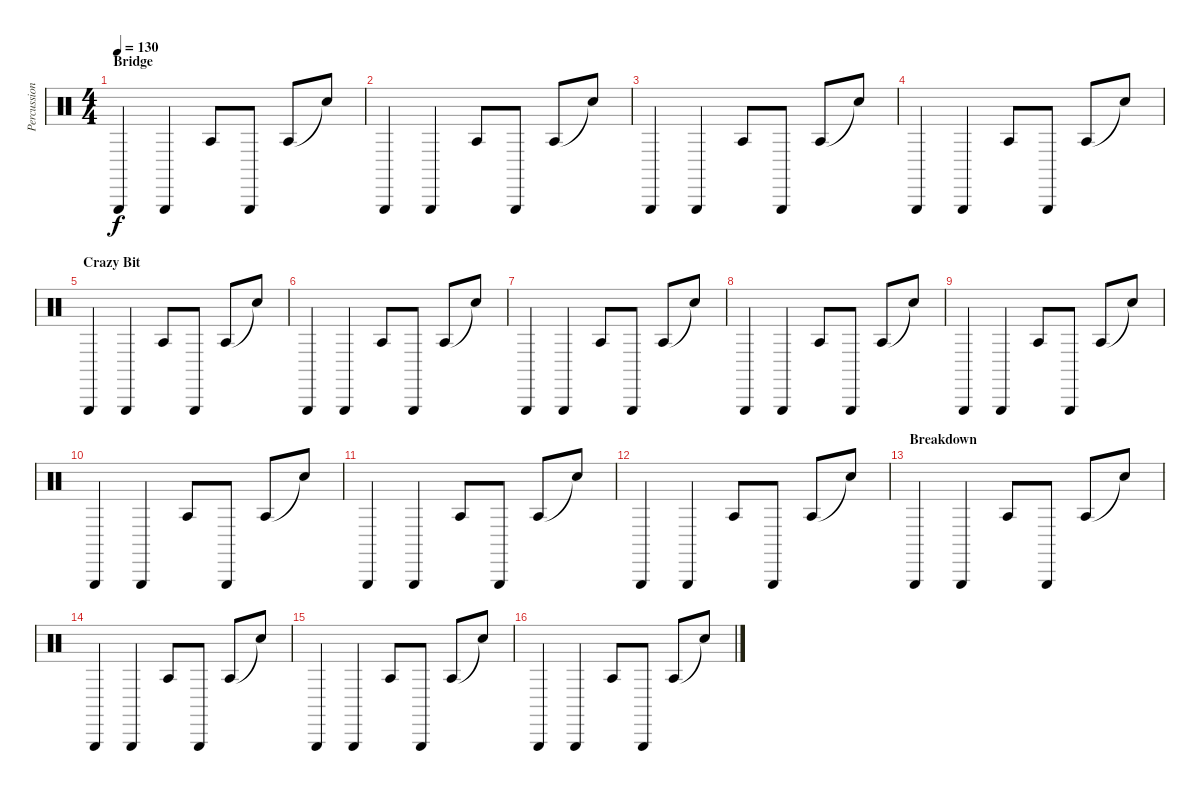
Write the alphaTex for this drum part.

\track ("Percussion" "Percussion") {instrument percussion}
\staff {score}
\articulation defaults
\ts (4 4)
\section ("" "Bridge")
\tempo 130
\clef neutral
\ks c "Triangle (hit)".4{dy f} "Triangle (hit)".4 "Agogo tow (hit)".8 "Triangle (hit)".8 "Agogo tow (hit)".8 "Snare (hit)"{t}.8
|
"Triangle (hit)".4 "Triangle (hit)".4 "Agogo tow (hit)".8 "Triangle (hit)".8 "Agogo tow (hit)".8 "Snare (hit)"{t}.8 |
"Triangle (hit)".4 "Triangle (hit)".4 "Agogo tow (hit)".8 "Triangle (hit)".8 "Agogo tow (hit)".8 "Snare (hit)"{t}.8 |
"Triangle (hit)".4 "Triangle (hit)".4 "Agogo tow (hit)".8 "Triangle (hit)".8 "Agogo tow (hit)".8 "Snare (hit)"{t}.8 |
\section ("" "Crazy Bit")
"Triangle (hit)".4 "Triangle (hit)".4 "Agogo tow (hit)".8 "Triangle (hit)".8 "Agogo tow (hit)".8 "Snare (hit)"{t}.8 |
"Triangle (hit)".4 "Triangle (hit)".4 "Agogo tow (hit)".8 "Triangle (hit)".8 "Agogo tow (hit)".8 "Snare (hit)"{t}.8 |
"Triangle (hit)".4 "Triangle (hit)".4 "Agogo tow (hit)".8 "Triangle (hit)".8 "Agogo tow (hit)".8 "Snare (hit)"{t}.8 |
"Triangle (hit)".4 "Triangle (hit)".4 "Agogo tow (hit)".8 "Triangle (hit)".8 "Agogo tow (hit)".8 "Snare (hit)"{t}.8 |
"Triangle (hit)".4 "Triangle (hit)".4 "Agogo tow (hit)".8 "Triangle (hit)".8 "Agogo tow (hit)".8 "Snare (hit)"{t}.8 |
"Triangle (hit)".4 "Triangle (hit)".4 "Agogo tow (hit)".8 "Triangle (hit)".8 "Agogo tow (hit)".8 "Snare (hit)"{t}.8 |
"Triangle (hit)".4 "Triangle (hit)".4 "Agogo tow (hit)".8 "Triangle (hit)".8 "Agogo tow (hit)".8 "Snare (hit)"{t}.8 |
"Triangle (hit)".4 "Triangle (hit)".4 "Agogo tow (hit)".8 "Triangle (hit)".8 "Agogo tow (hit)".8 "Snare (hit)"{t}.8 |
\section ("" "Breakdown")
"Triangle (hit)".4 "Triangle (hit)".4 "Agogo tow (hit)".8 "Triangle (hit)".8 "Agogo tow (hit)".8 "Snare (hit)"{t}.8 |
"Triangle (hit)".4 "Triangle (hit)".4 "Agogo tow (hit)".8 "Triangle (hit)".8 "Agogo tow (hit)".8 "Snare (hit)"{t}.8 |
"Triangle (hit)".4 "Triangle (hit)".4 "Agogo tow (hit)".8 "Triangle (hit)".8 "Agogo tow (hit)".8 "Snare (hit)"{t}.8 |
"Triangle (hit)".4 "Triangle (hit)".4 "Agogo tow (hit)".8 "Triangle (hit)".8 "Agogo tow (hit)".8 "Snare (hit)"{t}.8
